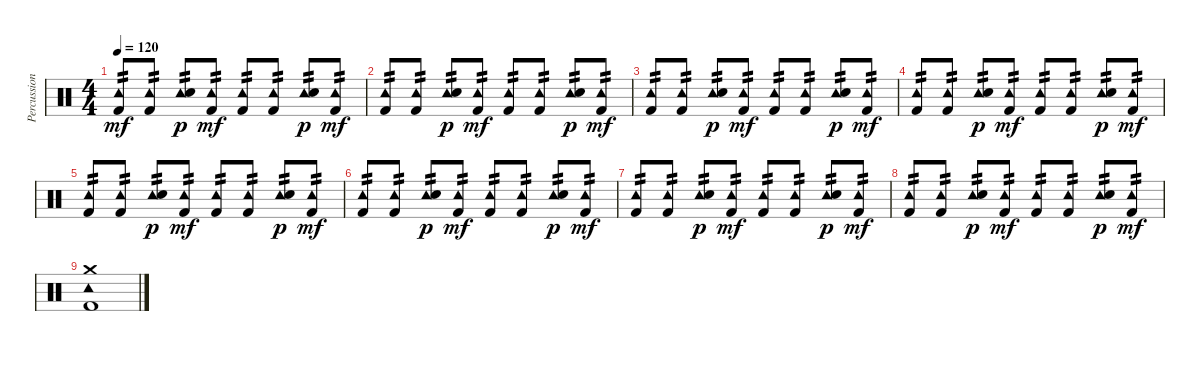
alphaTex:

\track ("Percussion" "Percussion") {instrument percussion}
\staff {score}
\articulation defaults
\ts (4 4)
\tempo 120
\clef neutral
\ks c
("Tambourine (hit)" "Kick (hit) 2").8{tp 2 dy mf} ("Tambourine (hit)" "Kick (hit) 2").8{tp 2} ("Tambourine (hit)" "Electric Snare (hit)").8{tp 2 dy p} ("Tambourine (hit)" "Kick (hit) 2").8{tp 2 dy mf} ("Tambourine (hit)" "Kick (hit) 2").8{tp 2} ("Tambourine (hit)" "Kick (hit) 2").8{tp 2} ("Tambourine (hit)" "Electric Snare (hit)").8{tp 2 dy p} ("Tambourine (hit)" "Kick (hit) 2").8{tp 2 dy mf} |
("Tambourine (hit)" "Kick (hit) 2").8{tp 2} ("Tambourine (hit)" "Kick (hit) 2").8{tp 2} ("Tambourine (hit)" "Electric Snare (hit)").8{tp 2 dy p} ("Tambourine (hit)" "Kick (hit) 2").8{tp 2 dy mf} ("Tambourine (hit)" "Kick (hit) 2").8{tp 2} ("Tambourine (hit)" "Kick (hit) 2").8{tp 2} ("Tambourine (hit)" "Electric Snare (hit)").8{tp 2 dy p} ("Tambourine (hit)" "Kick (hit) 2").8{tp 2 dy mf} |
("Tambourine (hit)" "Kick (hit) 2").8{tp 2} ("Tambourine (hit)" "Kick (hit) 2").8{tp 2} ("Tambourine (hit)" "Electric Snare (hit)").8{tp 2 dy p} ("Tambourine (hit)" "Kick (hit) 2").8{tp 2 dy mf} ("Tambourine (hit)" "Kick (hit) 2").8{tp 2} ("Tambourine (hit)" "Kick (hit) 2").8{tp 2} ("Tambourine (hit)" "Electric Snare (hit)").8{tp 2 dy p} ("Tambourine (hit)" "Kick (hit) 2").8{tp 2 dy mf} |
("Tambourine (hit)" "Kick (hit) 2").8{tp 2} ("Tambourine (hit)" "Kick (hit) 2").8{tp 2} ("Tambourine (hit)" "Electric Snare (hit)").8{tp 2 dy p} ("Tambourine (hit)" "Kick (hit) 2").8{tp 2 dy mf} ("Tambourine (hit)" "Kick (hit) 2").8{tp 2} ("Tambourine (hit)" "Kick (hit) 2").8{tp 2} ("Tambourine (hit)" "Electric Snare (hit)").8{tp 2 dy p} ("Tambourine (hit)" "Kick (hit) 2").8{tp 2 dy mf} |
("Tambourine (hit)" "Kick (hit) 2").8{tp 2} ("Tambourine (hit)" "Kick (hit) 2").8{tp 2} ("Tambourine (hit)" "Electric Snare (hit)").8{tp 2 dy p} ("Tambourine (hit)" "Kick (hit) 2").8{tp 2 dy mf} ("Tambourine (hit)" "Kick (hit) 2").8{tp 2} ("Tambourine (hit)" "Kick (hit) 2").8{tp 2} ("Tambourine (hit)" "Electric Snare (hit)").8{tp 2 dy p} ("Tambourine (hit)" "Kick (hit) 2").8{tp 2 dy mf} |
("Tambourine (hit)" "Kick (hit) 2").8{tp 2} ("Tambourine (hit)" "Kick (hit) 2").8{tp 2} ("Tambourine (hit)" "Electric Snare (hit)").8{tp 2 dy p} ("Tambourine (hit)" "Kick (hit) 2").8{tp 2 dy mf} ("Tambourine (hit)" "Kick (hit) 2").8{tp 2} ("Tambourine (hit)" "Kick (hit) 2").8{tp 2} ("Tambourine (hit)" "Electric Snare (hit)").8{tp 2 dy p} ("Tambourine (hit)" "Kick (hit) 2").8{tp 2 dy mf} |
("Tambourine (hit)" "Kick (hit) 2").8{tp 2} ("Tambourine (hit)" "Kick (hit) 2").8{tp 2} ("Tambourine (hit)" "Electric Snare (hit)").8{tp 2 dy p} ("Tambourine (hit)" "Kick (hit) 2").8{tp 2 dy mf} ("Tambourine (hit)" "Kick (hit) 2").8{tp 2} ("Tambourine (hit)" "Kick (hit) 2").8{tp 2} ("Tambourine (hit)" "Electric Snare (hit)").8{tp 2 dy p} ("Tambourine (hit)" "Kick (hit) 2").8{tp 2 dy mf} |
("Tambourine (hit)" "Kick (hit) 2").8{tp 2} ("Tambourine (hit)" "Kick (hit) 2").8{tp 2} ("Tambourine (hit)" "Electric Snare (hit)").8{tp 2 dy p} ("Tambourine (hit)" "Kick (hit) 2").8{tp 2 dy mf} ("Tambourine (hit)" "Kick (hit) 2").8{tp 2} ("Tambourine (hit)" "Kick (hit) 2").8{tp 2} ("Tambourine (hit)" "Electric Snare (hit)").8{tp 2 dy p} ("Tambourine (hit)" "Kick (hit) 2").8{tp 2 dy mf} |
("Crash medium (hit)" "Tambourine (hit)" "Kick (hit) 2").1
